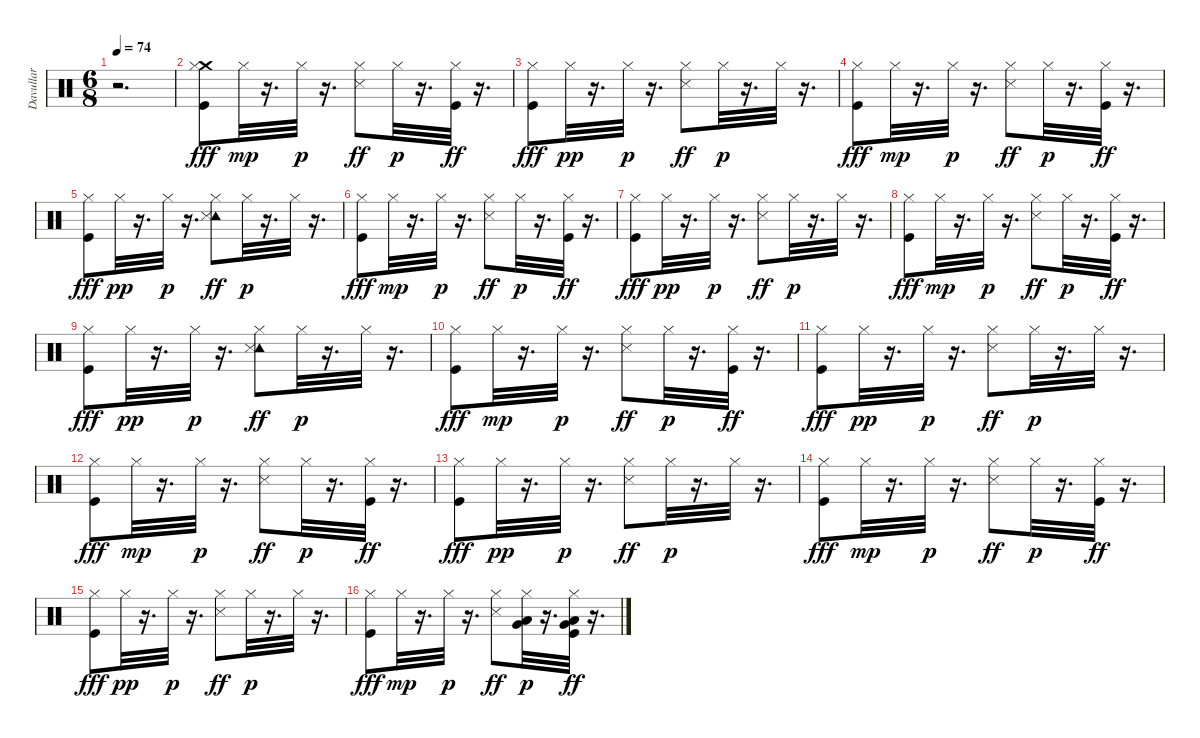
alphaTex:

\track ("Davullar" "Davullar") {instrument percussion}
\staff {score}
\articulation defaults
\ts (6 8)
\tempo 74
\clef neutral
\ks c
r.2{d dy fff} |
("Crash medium (hit)" "Hi-Hat (closed)" "Kick (hit)").8{volume 11} "Hi-Hat (closed)".32{dy mp} r.16{d} "Hi-Hat (closed)".32{dy p} r.16{d} ("Hi-Hat (closed)" "Snare (side stick) 3").8{dy ff} "Hi-Hat (closed)".32{dy p} r.16{d} ("Hi-Hat (closed)" "Kick (hit)").32{dy ff} r.16{d} |
("Hi-Hat (closed)" "Kick (hit)").8{dy fff} "Hi-Hat (closed)".32{dy pp} r.16{d} "Hi-Hat (closed)".32{dy p} r.16{d} ("Hi-Hat (closed)" "Snare (side stick) 3").8{dy ff} "Hi-Hat (closed)".32{dy p} r.16{d} "Hi-Hat (closed)".32 r.16{d} |
("Hi-Hat (closed)" "Kick (hit)").8{dy fff} "Hi-Hat (closed)".32{dy mp} r.16{d} "Hi-Hat (closed)".32{dy p} r.16{d} ("Hi-Hat (closed)" "Snare (side stick) 3").8{dy ff} "Hi-Hat (closed)".32{dy p} r.16{d} ("Hi-Hat (closed)" "Kick (hit)").32{dy ff} r.16{d} |
("Hi-Hat (closed)" "Kick (hit)").8{dy fff} "Hi-Hat (closed)".32{dy pp} r.16{d} "Hi-Hat (closed)".32{dy p} r.16{d} ("Tambourine (hit)" "Hi-Hat (closed)" "Snare (side stick) 3").8{dy ff} "Hi-Hat (closed)".32{dy p} r.16{d} "Hi-Hat (closed)".32 r.16{d} |
("Hi-Hat (closed)" "Kick (hit)").8{dy fff} "Hi-Hat (closed)".32{dy mp} r.16{d} "Hi-Hat (closed)".32{dy p} r.16{d} ("Hi-Hat (closed)" "Snare (side stick) 3").8{dy ff} "Hi-Hat (closed)".32{dy p} r.16{d} ("Hi-Hat (closed)" "Kick (hit)").32{dy ff} r.16{d} |
("Hi-Hat (closed)" "Kick (hit)").8{dy fff} "Hi-Hat (closed)".32{dy pp} r.16{d} "Hi-Hat (closed)".32{dy p} r.16{d} ("Hi-Hat (closed)" "Snare (side stick) 3").8{dy ff} "Hi-Hat (closed)".32{dy p} r.16{d} "Hi-Hat (closed)".32 r.16{d} |
("Hi-Hat (closed)" "Kick (hit)").8{dy fff} "Hi-Hat (closed)".32{dy mp} r.16{d} "Hi-Hat (closed)".32{dy p} r.16{d} ("Hi-Hat (closed)" "Snare (side stick) 3").8{dy ff} "Hi-Hat (closed)".32{dy p} r.16{d} ("Hi-Hat (closed)" "Kick (hit)").32{dy ff} r.16{d} |
("Hi-Hat (closed)" "Kick (hit)").8{dy fff} "Hi-Hat (closed)".32{dy pp} r.16{d} "Hi-Hat (closed)".32{dy p} r.16{d} ("Tambourine (hit)" "Hi-Hat (closed)" "Snare (side stick) 3").8{dy ff} "Hi-Hat (closed)".32{dy p} r.16{d} "Hi-Hat (closed)".32 r.16{d} |
("Hi-Hat (closed)" "Kick (hit)").8{dy fff} "Hi-Hat (closed)".32{dy mp} r.16{d} "Hi-Hat (closed)".32{dy p} r.16{d} ("Hi-Hat (closed)" "Snare (side stick) 3").8{dy ff} "Hi-Hat (closed)".32{dy p} r.16{d} ("Hi-Hat (closed)" "Kick (hit)").32{dy ff} r.16{d} |
("Hi-Hat (closed)" "Kick (hit)").8{dy fff} "Hi-Hat (closed)".32{dy pp} r.16{d} "Hi-Hat (closed)".32{dy p} r.16{d} ("Hi-Hat (closed)" "Snare (side stick) 3").8{dy ff} "Hi-Hat (closed)".32{dy p} r.16{d} "Hi-Hat (closed)".32 r.16{d} |
("Hi-Hat (closed)" "Kick (hit)").8{dy fff} "Hi-Hat (closed)".32{dy mp} r.16{d} "Hi-Hat (closed)".32{dy p} r.16{d} ("Hi-Hat (closed)" "Snare (side stick) 3").8{dy ff} "Hi-Hat (closed)".32{dy p} r.16{d} ("Hi-Hat (closed)" "Kick (hit)").32{dy ff} r.16{d} |
("Hi-Hat (closed)" "Kick (hit)").8{dy fff} "Hi-Hat (closed)".32{dy pp} r.16{d} "Hi-Hat (closed)".32{dy p} r.16{d} ("Hi-Hat (closed)" "Snare (side stick) 3").8{dy ff} "Hi-Hat (closed)".32{dy p} r.16{d} "Hi-Hat (closed)".32 r.16{d} |
("Hi-Hat (closed)" "Kick (hit)").8{dy fff} "Hi-Hat (closed)".32{dy mp} r.16{d} "Hi-Hat (closed)".32{dy p} r.16{d} ("Hi-Hat (closed)" "Snare (side stick) 3").8{dy ff} "Hi-Hat (closed)".32{dy p} r.16{d} ("Hi-Hat (closed)" "Kick (hit)").32{dy ff} r.16{d} |
("Hi-Hat (closed)" "Kick (hit)").8{dy fff} "Hi-Hat (closed)".32{dy pp} r.16{d} "Hi-Hat (closed)".32{dy p} r.16{d} ("Hi-Hat (closed)" "Snare (side stick) 3").8{dy ff} "Hi-Hat (closed)".32{dy p} r.16{d} "Hi-Hat (closed)".32 r.16{d} |
("Hi-Hat (closed)" "Kick (hit)").8{dy fff} "Hi-Hat (closed)".32{dy mp} r.16{d} "Hi-Hat (closed)".32{dy p} r.16{d} ("Hi-Hat (closed)" "Snare (side stick) 3").8{dy ff} ("Very Low Tom (hit)" "Low Floor Tom (hit)" "Hi-Hat (closed)").32{dy p} r.16{d} ("Very Low Tom (hit)" "Low Floor Tom (hit)" "Hi-Hat (closed)" "Kick (hit)").32{dy ff} r.16{d}
